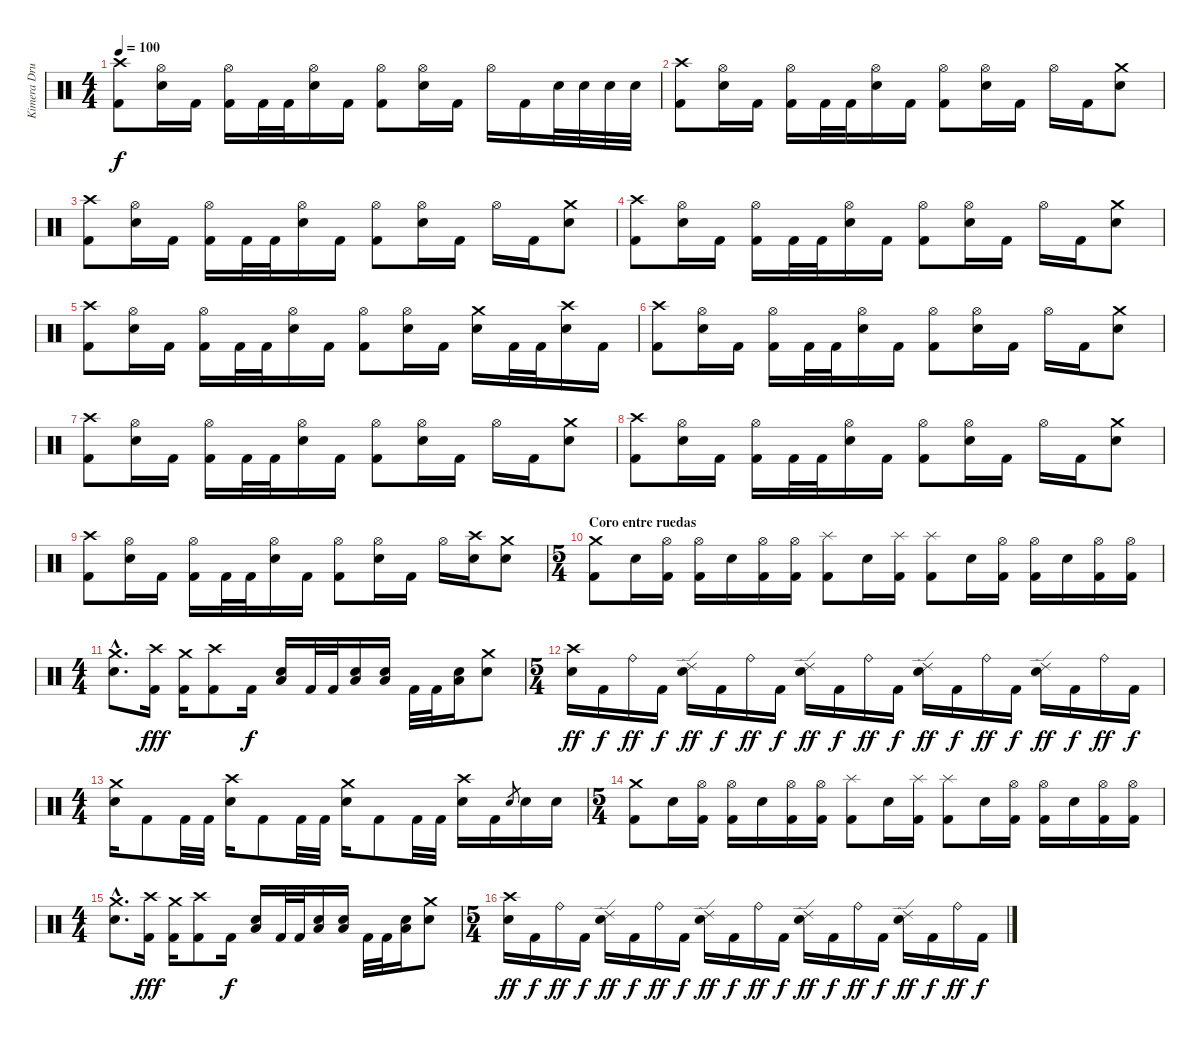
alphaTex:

\track ("Kimera Drummer" "Kimera Dru") {instrument percussion}
\staff {score}
\articulation defaults
\ts (4 4)
\tempo 100
\clef neutral
\ks c
("Crash high (hit)" "Kick (hit) 2").8{dy f} ("Hi-Hat (open)" "Electric Snare (hit)").16 "Kick (hit) 2".16 ("Hi-Hat (open)" "Kick (hit) 2").16 "Kick (hit) 2".32 "Kick (hit) 2".32 ("Hi-Hat (open)" "Electric Snare (hit)").16 "Kick (hit) 2".16 ("Hi-Hat (open)" "Kick (hit) 2").8 ("Hi-Hat (open)" "Electric Snare (hit)").16 "Kick (hit) 2".16 "Hi-Hat (open)".16 "Kick (hit) 2".16 "Electric Snare (hit)".32 "Electric Snare (hit)".32 "Electric Snare (hit)".32 "Electric Snare (hit)".32 |
("Crash high (hit)" "Kick (hit) 2").8 ("Hi-Hat (open)" "Electric Snare (hit)").16 "Kick (hit) 2".16 ("Hi-Hat (open)" "Kick (hit) 2").16 "Kick (hit) 2".32 "Kick (hit) 2".32 ("Hi-Hat (open)" "Electric Snare (hit)").16 "Kick (hit) 2".16 ("Hi-Hat (open)" "Kick (hit) 2").8 ("Hi-Hat (open)" "Electric Snare (hit)").16 "Kick (hit) 2".16 "Hi-Hat (open)".16 "Kick (hit) 2".16 ("Crash medium (hit)" "Electric Snare (hit)").8 |
("Crash high (hit)" "Kick (hit) 2").8 ("Hi-Hat (open)" "Electric Snare (hit)").16 "Kick (hit) 2".16 ("Hi-Hat (open)" "Kick (hit) 2").16 "Kick (hit) 2".32 "Kick (hit) 2".32 ("Hi-Hat (open)" "Electric Snare (hit)").16 "Kick (hit) 2".16 ("Hi-Hat (open)" "Kick (hit) 2").8 ("Hi-Hat (open)" "Electric Snare (hit)").16 "Kick (hit) 2".16 "Hi-Hat (open)".16 "Kick (hit) 2".16 ("Crash medium (hit)" "Electric Snare (hit)").8 |
("Crash high (hit)" "Kick (hit) 2").8 ("Hi-Hat (open)" "Electric Snare (hit)").16 "Kick (hit) 2".16 ("Hi-Hat (open)" "Kick (hit) 2").16 "Kick (hit) 2".32 "Kick (hit) 2".32 ("Hi-Hat (open)" "Electric Snare (hit)").16 "Kick (hit) 2".16 ("Hi-Hat (open)" "Kick (hit) 2").8 ("Hi-Hat (open)" "Electric Snare (hit)").16 "Kick (hit) 2".16 "Hi-Hat (open)".16 "Kick (hit) 2".16 ("Crash medium (hit)" "Electric Snare (hit)").8 |
("Crash high (hit)" "Kick (hit) 2").8 ("Hi-Hat (open)" "Electric Snare (hit)").16 "Kick (hit) 2".16 ("Hi-Hat (open)" "Kick (hit) 2").16 "Kick (hit) 2".32 "Kick (hit) 2".32 ("Hi-Hat (open)" "Electric Snare (hit)").16 "Kick (hit) 2".16 ("Hi-Hat (open)" "Kick (hit) 2").8 ("Hi-Hat (open)" "Electric Snare (hit)").16 "Kick (hit) 2".16 ("Crash medium (hit)" "Electric Snare (hit)").16 "Kick (hit) 2".32 "Kick (hit) 2".32 ("Crash high (hit)" "Electric Snare (hit)").16 "Kick (hit) 2".16 |
("Crash high (hit)" "Kick (hit) 2").8 ("Hi-Hat (open)" "Electric Snare (hit)").16 "Kick (hit) 2".16 ("Hi-Hat (open)" "Kick (hit) 2").16 "Kick (hit) 2".32 "Kick (hit) 2".32 ("Hi-Hat (open)" "Electric Snare (hit)").16 "Kick (hit) 2".16 ("Hi-Hat (open)" "Kick (hit) 2").8 ("Hi-Hat (open)" "Electric Snare (hit)").16 "Kick (hit) 2".16 "Hi-Hat (open)".16 "Kick (hit) 2".16 ("Crash medium (hit)" "Electric Snare (hit)").8 |
("Crash high (hit)" "Kick (hit) 2").8 ("Hi-Hat (open)" "Electric Snare (hit)").16 "Kick (hit) 2".16 ("Hi-Hat (open)" "Kick (hit) 2").16 "Kick (hit) 2".32 "Kick (hit) 2".32 ("Hi-Hat (open)" "Electric Snare (hit)").16 "Kick (hit) 2".16 ("Hi-Hat (open)" "Kick (hit) 2").8 ("Hi-Hat (open)" "Electric Snare (hit)").16 "Kick (hit) 2".16 "Hi-Hat (open)".16 "Kick (hit) 2".16 ("Crash medium (hit)" "Electric Snare (hit)").8 |
("Crash high (hit)" "Kick (hit) 2").8 ("Hi-Hat (open)" "Electric Snare (hit)").16 "Kick (hit) 2".16 ("Hi-Hat (open)" "Kick (hit) 2").16 "Kick (hit) 2".32 "Kick (hit) 2".32 ("Hi-Hat (open)" "Electric Snare (hit)").16 "Kick (hit) 2".16 ("Hi-Hat (open)" "Kick (hit) 2").8 ("Hi-Hat (open)" "Electric Snare (hit)").16 "Kick (hit) 2".16 "Hi-Hat (open)".16 "Kick (hit) 2".16 ("Crash medium (hit)" "Electric Snare (hit)").8 |
("Crash high (hit)" "Kick (hit) 2").8 ("Hi-Hat (open)" "Electric Snare (hit)").16 "Kick (hit) 2".16 ("Hi-Hat (open)" "Kick (hit) 2").16 "Kick (hit) 2".32 "Kick (hit) 2".32 ("Hi-Hat (open)" "Electric Snare (hit)").16 "Kick (hit) 2".16 ("Hi-Hat (open)" "Kick (hit) 2").8 ("Hi-Hat (open)" "Electric Snare (hit)").16 "Kick (hit) 2".16 "Hi-Hat (open)".16 ("Crash high (hit)" "Electric Snare (hit)").16 ("Crash medium (hit)" "Electric Snare (hit)").8 |
\ts (5 4)
\section ("" "Coro entre ruedas")
("Crash medium (hit)" "Kick (hit) 2").8 "Electric Snare (hit)".16 ("Hi-Hat (open)" "Kick (hit) 2").16 ("Hi-Hat (open)" "Kick (hit) 2").16 "Electric Snare (hit)".16 ("Hi-Hat (open)" "Kick (hit) 2").16 ("Hi-Hat (open)" "Kick (hit) 2").16 ("Splash (hit)" "Kick (hit) 2").8 "Electric Snare (hit)".16 ("Splash (hit)" "Kick (hit) 2").16 ("Splash (hit)" "Kick (hit) 2").8 "Electric Snare (hit)".16 ("Hi-Hat (open)" "Kick (hit) 2").16 ("Hi-Hat (open)" "Kick (hit) 2").16 "Electric Snare (hit)".16 ("Hi-Hat (open)" "Kick (hit) 2").16 ("Hi-Hat (open)" "Kick (hit) 2").16 |
\ts (4 4)
("Crash medium (hit)"{hac} "Electric Snare (hit)"{hac}).8{d} ("Crash high (hit)" "Kick (hit) 2").16{dy fff} ("Crash medium (hit)" "Kick (hit) 2").16 ("Crash high (hit)" "Kick (hit) 2").8 "Kick (hit) 2".16{dy f} ("Electric Snare (hit)" "Low Floor Tom (hit)").16 "Kick (hit) 2".32 "Kick (hit) 2".32 ("Electric Snare (hit)" "Low Floor Tom (hit)").16 ("Electric Snare (hit)" "Low Floor Tom (hit)").16 "Kick (hit) 2".32 "Kick (hit) 2".32 ("Electric Snare (hit)" "Low Floor Tom (hit)").16 ("Crash medium (hit)" "Electric Snare (hit)").8 |
\ts (5 4)
("Crash high (hit)" "Electric Snare (hit)").16{dy ff} "Kick (hit) 2".16{dy f} "Ride (bell)".16{dy ff} "Kick (hit) 2".16{dy f} ("Ride (edge) 2" "Electric Snare (hit)").16{dy ff} "Kick (hit) 2".16{dy f} "Ride (bell)".16{dy ff} "Kick (hit) 2".16{dy f} ("Ride (edge) 2" "Electric Snare (hit)").16{dy ff} "Kick (hit) 2".16{dy f} "Ride (bell)".16{dy ff} "Kick (hit) 2".16{dy f} ("Ride (edge) 2" "Electric Snare (hit)").16{dy ff} "Kick (hit) 2".16{dy f} "Ride (bell)".16{dy ff} "Kick (hit) 2".16{dy f} ("Ride (edge) 2" "Electric Snare (hit)").16{dy ff} "Kick (hit) 2".16{dy f} "Ride (bell)".16{dy ff} "Kick (hit) 2".16{dy f} |
\ts (4 4)
("Crash medium (hit)" "Electric Snare (hit)").16 "Kick (hit) 2".8 "Kick (hit) 2".32 "Kick (hit) 2".32 ("Crash high (hit)" "Electric Snare (hit)").16 "Kick (hit) 2".8 "Kick (hit) 2".32 "Kick (hit) 2".32 ("Crash medium (hit)" "Electric Snare (hit)").16 "Kick (hit) 2".8 "Kick (hit) 2".32 "Kick (hit) 2".32 ("Crash high (hit)" "Electric Snare (hit)").16 "Kick (hit) 2".16 "Electric Snare (hit)".8{gr} "Electric Snare (hit)".16 "Electric Snare (hit)".16 |
\ts (5 4)
("Crash medium (hit)" "Kick (hit) 2").8 "Electric Snare (hit)".16 ("Hi-Hat (open)" "Kick (hit) 2").16 ("Hi-Hat (open)" "Kick (hit) 2").16 "Electric Snare (hit)".16 ("Hi-Hat (open)" "Kick (hit) 2").16 ("Hi-Hat (open)" "Kick (hit) 2").16 ("Splash (hit)" "Kick (hit) 2").8 "Electric Snare (hit)".16 ("Splash (hit)" "Kick (hit) 2").16 ("Splash (hit)" "Kick (hit) 2").8 "Electric Snare (hit)".16 ("Hi-Hat (open)" "Kick (hit) 2").16 ("Hi-Hat (open)" "Kick (hit) 2").16 "Electric Snare (hit)".16 ("Hi-Hat (open)" "Kick (hit) 2").16 ("Hi-Hat (open)" "Kick (hit) 2").16 |
\ts (4 4)
("Crash medium (hit)"{hac} "Electric Snare (hit)"{hac}).8{d} ("Crash high (hit)" "Kick (hit) 2").16{dy fff} ("Crash medium (hit)" "Kick (hit) 2").16 ("Crash high (hit)" "Kick (hit) 2").8 "Kick (hit) 2".16{dy f} ("Electric Snare (hit)" "Low Floor Tom (hit)").16 "Kick (hit) 2".32 "Kick (hit) 2".32 ("Electric Snare (hit)" "Low Floor Tom (hit)").16 ("Electric Snare (hit)" "Low Floor Tom (hit)").16 "Kick (hit) 2".32 "Kick (hit) 2".32 ("Electric Snare (hit)" "Low Floor Tom (hit)").16 ("Crash medium (hit)" "Electric Snare (hit)").8 |
\ts (5 4)
("Crash high (hit)" "Electric Snare (hit)").16{dy ff} "Kick (hit) 2".16{dy f} "Ride (bell)".16{dy ff} "Kick (hit) 2".16{dy f} ("Ride (edge) 2" "Electric Snare (hit)").16{dy ff} "Kick (hit) 2".16{dy f} "Ride (bell)".16{dy ff} "Kick (hit) 2".16{dy f} ("Ride (edge) 2" "Electric Snare (hit)").16{dy ff} "Kick (hit) 2".16{dy f} "Ride (bell)".16{dy ff} "Kick (hit) 2".16{dy f} ("Ride (edge) 2" "Electric Snare (hit)").16{dy ff} "Kick (hit) 2".16{dy f} "Ride (bell)".16{dy ff} "Kick (hit) 2".16{dy f} ("Ride (edge) 2" "Electric Snare (hit)").16{dy ff} "Kick (hit) 2".16{dy f} "Ride (bell)".16{dy ff} "Kick (hit) 2".16{dy f}
